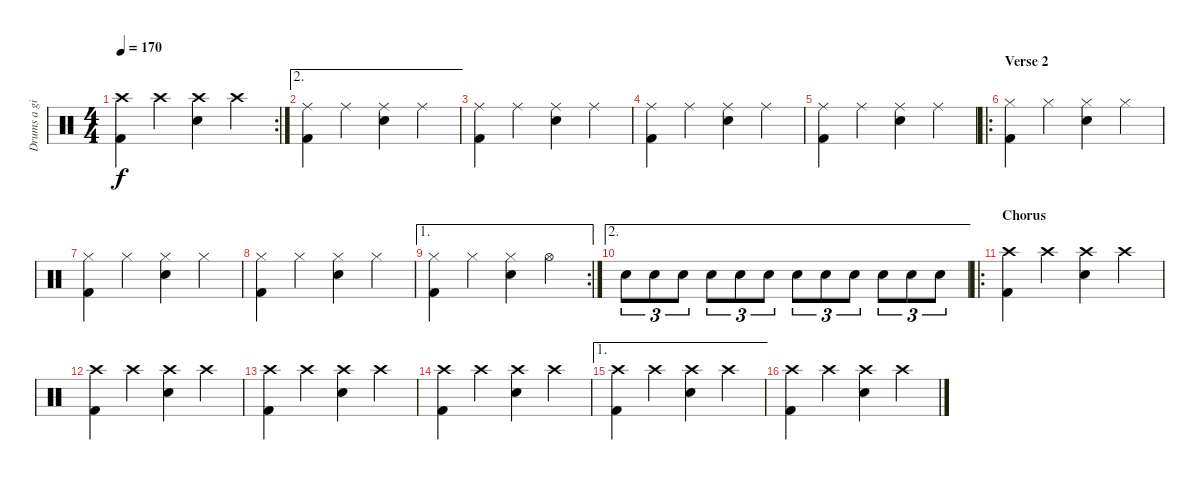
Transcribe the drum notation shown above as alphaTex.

\track ("Drums a girl could play" "Drums a gi") {instrument percussion}
\staff {score}
\articulation defaults
\rc 2
\ts (4 4)
\tempo 170
\clef neutral
\ks c
("Crash high (hit)" "Kick (hit) 2").4{dy f} "Crash high (hit)".4 ("Crash high (hit)" "Electric Snare (hit)").4 "Crash high (hit)".4 |
\ae 2
("Ride (middle)" "Kick (hit) 2").4 "Ride (middle)".4 ("Ride (middle)" "Electric Snare (hit)").4 "Ride (middle)".4 |
("Ride (middle)" "Kick (hit) 2").4 "Ride (middle)".4 ("Ride (middle)" "Electric Snare (hit)").4 "Ride (middle)".4 |
("Ride (middle)" "Kick (hit) 2").4 "Ride (middle)".4 ("Ride (middle)" "Electric Snare (hit)").4 "Ride (middle)".4 |
("Ride (middle)" "Kick (hit) 2").4 "Ride (middle)".4 ("Ride (middle)" "Electric Snare (hit)").4 "Ride (middle)".4 |
\ro
\section ("" "Verse 2")
("Hi-Hat (closed)" "Kick (hit) 2").4 "Hi-Hat (closed)".4 ("Hi-Hat (closed)" "Electric Snare (hit)").4 "Hi-Hat (closed)".4 |
("Hi-Hat (closed)" "Kick (hit) 2").4 "Hi-Hat (closed)".4 ("Hi-Hat (closed)" "Electric Snare (hit)").4 "Hi-Hat (closed)".4 |
("Hi-Hat (closed)" "Kick (hit) 2").4 "Hi-Hat (closed)".4 ("Hi-Hat (closed)" "Electric Snare (hit)").4 "Hi-Hat (closed)".4 |
\ae 1
\rc 2
("Hi-Hat (closed)" "Kick (hit) 2").4 "Hi-Hat (closed)".4 ("Hi-Hat (closed)" "Electric Snare (hit)").4 "Hi-Hat (open)".4 |
\ae 2 "Electric Snare (hit)".8{tu (3 2)} "Electric Snare (hit)".8{tu (3 2)} "Electric Snare (hit)".8{tu (3 2)} "Electric Snare (hit)".8{tu (3 2)} "Electric Snare (hit)".8{tu (3 2)} "Electric Snare (hit)".8{tu (3 2)} "Electric Snare (hit)".8{tu (3 2)} "Electric Snare (hit)".8{tu (3 2)} "Electric Snare (hit)".8{tu (3 2)} "Electric Snare (hit)".8{tu (3 2)} "Electric Snare (hit)".8{tu (3 2)} "Electric Snare (hit)".8{tu (3 2)}
|
\ro
\section ("" "Chorus")
("Crash high (hit)" "Kick (hit) 2").4 "Crash high (hit)".4 ("Crash high (hit)" "Electric Snare (hit)").4 "Crash high (hit)".4 |
("Crash high (hit)" "Kick (hit) 2").4 "Crash high (hit)".4 ("Crash high (hit)" "Electric Snare (hit)").4 "Crash high (hit)".4 |
("Crash high (hit)" "Kick (hit) 2").4 "Crash high (hit)".4 ("Crash high (hit)" "Electric Snare (hit)").4 "Crash high (hit)".4 |
("Crash high (hit)" "Kick (hit) 2").4 "Crash high (hit)".4 ("Crash high (hit)" "Electric Snare (hit)").4 "Crash high (hit)".4 |
\ae 1
("Crash high (hit)" "Kick (hit) 2").4 "Crash high (hit)".4 ("Crash high (hit)" "Electric Snare (hit)").4 "Crash high (hit)".4 |
("Crash high (hit)" "Kick (hit) 2").4 "Crash high (hit)".4 ("Crash high (hit)" "Electric Snare (hit)").4 "Crash high (hit)".4
